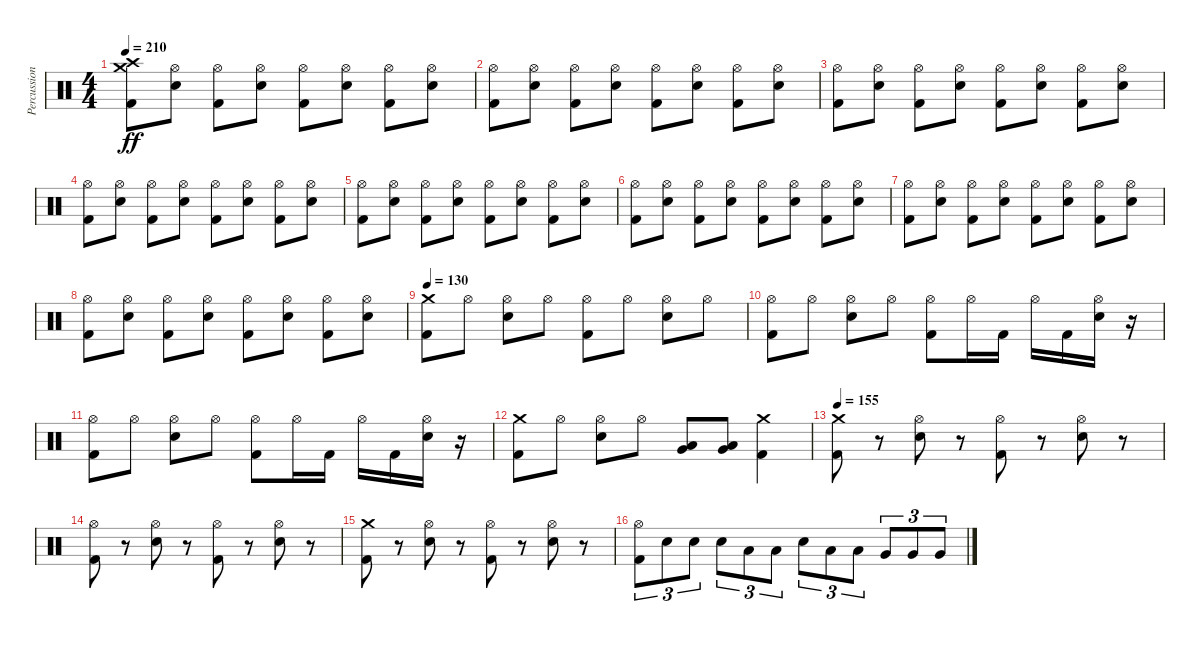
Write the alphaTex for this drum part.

\track ("Percussion" "Percussion") {instrument percussion}
\staff {score}
\articulation defaults
\ts (4 4)
\tempo 210
\clef neutral
\ks c
("Kick (hit) 2" "Crash medium (hit)" "Crash high (hit)").8{dy ff} ("Electric Snare (hit)" "Hi-Hat (open)").8 ("Kick (hit) 2" "Hi-Hat (open)").8 ("Electric Snare (hit)" "Hi-Hat (open)").8 ("Kick (hit) 2" "Hi-Hat (open)").8 ("Electric Snare (hit)" "Hi-Hat (open)").8 ("Kick (hit) 2" "Hi-Hat (open)").8 ("Electric Snare (hit)" "Hi-Hat (open)").8 |
("Kick (hit) 2" "Hi-Hat (open)").8 ("Electric Snare (hit)" "Hi-Hat (open)").8 ("Kick (hit) 2" "Hi-Hat (open)").8 ("Electric Snare (hit)" "Hi-Hat (open)").8 ("Kick (hit) 2" "Hi-Hat (open)").8 ("Electric Snare (hit)" "Hi-Hat (open)").8 ("Kick (hit) 2" "Hi-Hat (open)").8 ("Electric Snare (hit)" "Hi-Hat (open)").8 |
("Kick (hit) 2" "Hi-Hat (open)").8 ("Electric Snare (hit)" "Hi-Hat (open)").8 ("Kick (hit) 2" "Hi-Hat (open)").8 ("Electric Snare (hit)" "Hi-Hat (open)").8 ("Kick (hit) 2" "Hi-Hat (open)").8 ("Electric Snare (hit)" "Hi-Hat (open)").8 ("Kick (hit) 2" "Hi-Hat (open)").8 ("Electric Snare (hit)" "Hi-Hat (open)").8 |
("Kick (hit) 2" "Hi-Hat (open)").8 ("Electric Snare (hit)" "Hi-Hat (open)").8 ("Kick (hit) 2" "Hi-Hat (open)").8 ("Electric Snare (hit)" "Hi-Hat (open)").8 ("Kick (hit) 2" "Hi-Hat (open)").8 ("Electric Snare (hit)" "Hi-Hat (open)").8 ("Kick (hit) 2" "Hi-Hat (open)").8 ("Electric Snare (hit)" "Hi-Hat (open)").8 |
("Kick (hit) 2" "Hi-Hat (open)").8 ("Electric Snare (hit)" "Hi-Hat (open)").8 ("Kick (hit) 2" "Hi-Hat (open)").8 ("Electric Snare (hit)" "Hi-Hat (open)").8 ("Kick (hit) 2" "Hi-Hat (open)").8 ("Electric Snare (hit)" "Hi-Hat (open)").8 ("Kick (hit) 2" "Hi-Hat (open)").8 ("Electric Snare (hit)" "Hi-Hat (open)").8 |
("Kick (hit) 2" "Hi-Hat (open)").8 ("Electric Snare (hit)" "Hi-Hat (open)").8 ("Kick (hit) 2" "Hi-Hat (open)").8 ("Electric Snare (hit)" "Hi-Hat (open)").8 ("Kick (hit) 2" "Hi-Hat (open)").8 ("Electric Snare (hit)" "Hi-Hat (open)").8 ("Kick (hit) 2" "Hi-Hat (open)").8 ("Electric Snare (hit)" "Hi-Hat (open)").8 |
("Kick (hit) 2" "Hi-Hat (open)").8 ("Electric Snare (hit)" "Hi-Hat (open)").8 ("Kick (hit) 2" "Hi-Hat (open)").8 ("Electric Snare (hit)" "Hi-Hat (open)").8 ("Kick (hit) 2" "Hi-Hat (open)").8 ("Electric Snare (hit)" "Hi-Hat (open)").8 ("Kick (hit) 2" "Hi-Hat (open)").8 ("Electric Snare (hit)" "Hi-Hat (open)").8 |
("Kick (hit) 2" "Hi-Hat (open)").8 ("Electric Snare (hit)" "Hi-Hat (open)").8 ("Kick (hit) 2" "Hi-Hat (open)").8 ("Electric Snare (hit)" "Hi-Hat (open)").8 ("Kick (hit) 2" "Hi-Hat (open)").8 ("Electric Snare (hit)" "Hi-Hat (open)").8 ("Kick (hit) 2" "Hi-Hat (open)").8 ("Electric Snare (hit)" "Hi-Hat (open)").8 |
\tempo 130
("Kick (hit) 2" "Crash medium (hit)").8 "Hi-Hat (open)".8 ("Electric Snare (hit)" "Hi-Hat (open)").8 "Hi-Hat (open)".8 ("Kick (hit) 2" "Hi-Hat (open)").8 "Hi-Hat (open)".8 ("Electric Snare (hit)" "Hi-Hat (open)").8 "Hi-Hat (open)".8 |
("Kick (hit) 2" "Hi-Hat (open)").8 "Hi-Hat (open)".8 ("Electric Snare (hit)" "Hi-Hat (open)").8 "Hi-Hat (open)".8 ("Kick (hit) 2" "Hi-Hat (open)").8 "Hi-Hat (open)".16 "Kick (hit) 2".16 "Hi-Hat (open)".16 "Kick (hit) 2".16 ("Electric Snare (hit)" "Hi-Hat (open)").16 r.16 |
("Kick (hit) 2" "Hi-Hat (open)").8 "Hi-Hat (open)".8 ("Electric Snare (hit)" "Hi-Hat (open)").8 "Hi-Hat (open)".8 ("Kick (hit) 2" "Hi-Hat (open)").8 "Hi-Hat (open)".16 "Kick (hit) 2".16 "Hi-Hat (open)".16 "Kick (hit) 2".16 ("Electric Snare (hit)" "Hi-Hat (open)").16 r.16 |
("Kick (hit) 2" "Crash medium (hit)").8 "Hi-Hat (open)".8 ("Electric Snare (hit)" "Hi-Hat (open)").8 "Hi-Hat (open)".8 ("Low Tom (hit)" "Very Low Tom (hit)").8 ("Low Tom (hit)" "Very Low Tom (hit)").8 ("Kick (hit) 2" "Crash medium (hit)").4 |
\tempo 155
("Kick (hit) 2" "Crash medium (hit)").8 r.8 ("Electric Snare (hit)" "Hi-Hat (open)").8 r.8 ("Kick (hit) 2" "Hi-Hat (open)").8 r.8 ("Electric Snare (hit)" "Hi-Hat (open)").8 r.8 |
("Kick (hit) 2" "Hi-Hat (open)").8 r.8 ("Electric Snare (hit)" "Hi-Hat (open)").8 r.8 ("Kick (hit) 2" "Hi-Hat (open)").8 r.8 ("Electric Snare (hit)" "Hi-Hat (open)").8 r.8 |
("Kick (hit) 2" "Crash medium (hit)").8 r.8 ("Electric Snare (hit)" "Hi-Hat (open)").8 r.8 ("Kick (hit) 2" "Hi-Hat (open)").8 r.8 ("Electric Snare (hit)" "Hi-Hat (open)").8 r.8 |
("Kick (hit) 2" "Hi-Hat (open)").8{tu (3 2)} "Electric Snare (hit)".8{tu (3 2)} "Electric Snare (hit)".8{tu (3 2)} "Electric Snare (hit)".8{tu (3 2)} "Low Tom (hit)".8{tu (3 2)} "Low Tom (hit)".8{tu (3 2)} "Electric Snare (hit)".8{tu (3 2)} "Low Tom (hit)".8{tu (3 2)} "Low Tom (hit)".8{tu (3 2)} "Very Low Tom (hit)".8{tu (3 2)} "Very Low Tom (hit)".8{tu (3 2)} "Very Low Tom (hit)".8{tu (3 2)}
